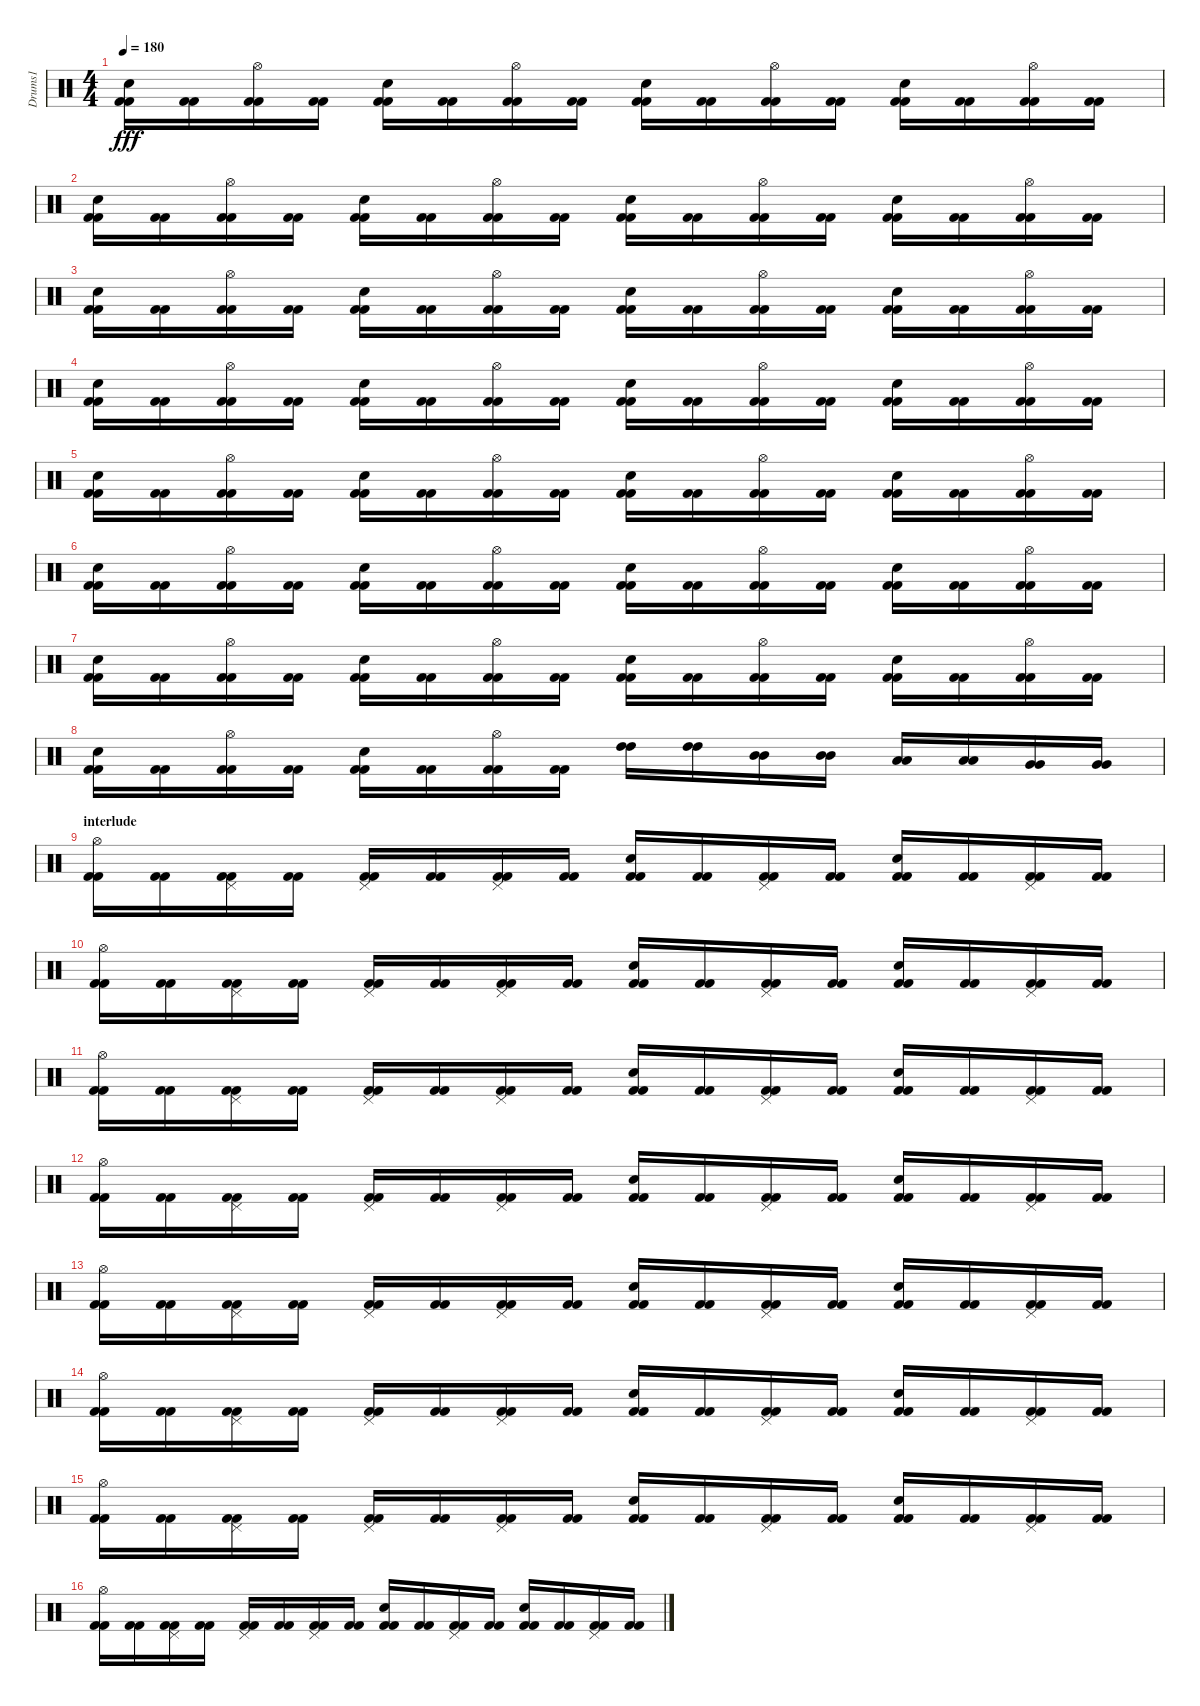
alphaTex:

\track ("Drums1" "Drums1") {instrument percussion}
\staff {score}
\articulation defaults
\ts (4 4)
\tempo 180
\clef neutral
\ks c
("Electric Snare (hit)" "Kick (hit) 2" "Kick (hit) 2").16{dy fff} ("Kick (hit) 2" "Kick (hit) 2").16 ("Hi-Hat (open)" "Kick (hit) 2" "Kick (hit) 2").16 ("Kick (hit) 2" "Kick (hit) 2").16 ("Electric Snare (hit)" "Kick (hit) 2" "Kick (hit) 2").16 ("Kick (hit) 2" "Kick (hit) 2").16 ("Hi-Hat (open)" "Kick (hit) 2" "Kick (hit) 2").16 ("Kick (hit) 2" "Kick (hit) 2").16 ("Electric Snare (hit)" "Kick (hit) 2" "Kick (hit) 2").16 ("Kick (hit) 2" "Kick (hit) 2").16 ("Hi-Hat (open)" "Kick (hit) 2" "Kick (hit) 2").16 ("Kick (hit) 2" "Kick (hit) 2").16 ("Electric Snare (hit)" "Kick (hit) 2" "Kick (hit) 2").16 ("Kick (hit) 2" "Kick (hit) 2").16 ("Hi-Hat (open)" "Kick (hit) 2" "Kick (hit) 2").16 ("Kick (hit) 2" "Kick (hit) 2").16 |
("Electric Snare (hit)" "Kick (hit) 2" "Kick (hit) 2").16 ("Kick (hit) 2" "Kick (hit) 2").16 ("Hi-Hat (open)" "Kick (hit) 2" "Kick (hit) 2").16 ("Kick (hit) 2" "Kick (hit) 2").16 ("Electric Snare (hit)" "Kick (hit) 2" "Kick (hit) 2").16 ("Kick (hit) 2" "Kick (hit) 2").16 ("Hi-Hat (open)" "Kick (hit) 2" "Kick (hit) 2").16 ("Kick (hit) 2" "Kick (hit) 2").16 ("Electric Snare (hit)" "Kick (hit) 2" "Kick (hit) 2").16 ("Kick (hit) 2" "Kick (hit) 2").16 ("Hi-Hat (open)" "Kick (hit) 2" "Kick (hit) 2").16 ("Kick (hit) 2" "Kick (hit) 2").16 ("Electric Snare (hit)" "Kick (hit) 2" "Kick (hit) 2").16 ("Kick (hit) 2" "Kick (hit) 2").16 ("Hi-Hat (open)" "Kick (hit) 2" "Kick (hit) 2").16 ("Kick (hit) 2" "Kick (hit) 2").16 |
("Electric Snare (hit)" "Kick (hit) 2" "Kick (hit) 2").16 ("Kick (hit) 2" "Kick (hit) 2").16 ("Hi-Hat (open)" "Kick (hit) 2" "Kick (hit) 2").16 ("Kick (hit) 2" "Kick (hit) 2").16 ("Electric Snare (hit)" "Kick (hit) 2" "Kick (hit) 2").16 ("Kick (hit) 2" "Kick (hit) 2").16 ("Hi-Hat (open)" "Kick (hit) 2" "Kick (hit) 2").16 ("Kick (hit) 2" "Kick (hit) 2").16 ("Electric Snare (hit)" "Kick (hit) 2" "Kick (hit) 2").16 ("Kick (hit) 2" "Kick (hit) 2").16 ("Hi-Hat (open)" "Kick (hit) 2" "Kick (hit) 2").16 ("Kick (hit) 2" "Kick (hit) 2").16 ("Electric Snare (hit)" "Kick (hit) 2" "Kick (hit) 2").16 ("Kick (hit) 2" "Kick (hit) 2").16 ("Hi-Hat (open)" "Kick (hit) 2" "Kick (hit) 2").16 ("Kick (hit) 2" "Kick (hit) 2").16 |
("Electric Snare (hit)" "Kick (hit) 2" "Kick (hit) 2").16 ("Kick (hit) 2" "Kick (hit) 2").16 ("Hi-Hat (open)" "Kick (hit) 2" "Kick (hit) 2").16 ("Kick (hit) 2" "Kick (hit) 2").16 ("Electric Snare (hit)" "Kick (hit) 2" "Kick (hit) 2").16 ("Kick (hit) 2" "Kick (hit) 2").16 ("Hi-Hat (open)" "Kick (hit) 2" "Kick (hit) 2").16 ("Kick (hit) 2" "Kick (hit) 2").16 ("Electric Snare (hit)" "Kick (hit) 2" "Kick (hit) 2").16 ("Kick (hit) 2" "Kick (hit) 2").16 ("Hi-Hat (open)" "Kick (hit) 2" "Kick (hit) 2").16 ("Kick (hit) 2" "Kick (hit) 2").16 ("Electric Snare (hit)" "Kick (hit) 2" "Kick (hit) 2").16 ("Kick (hit) 2" "Kick (hit) 2").16 ("Hi-Hat (open)" "Kick (hit) 2" "Kick (hit) 2").16 ("Kick (hit) 2" "Kick (hit) 2").16 |
("Electric Snare (hit)" "Kick (hit) 2" "Kick (hit) 2").16 ("Kick (hit) 2" "Kick (hit) 2").16 ("Hi-Hat (open)" "Kick (hit) 2" "Kick (hit) 2").16 ("Kick (hit) 2" "Kick (hit) 2").16 ("Electric Snare (hit)" "Kick (hit) 2" "Kick (hit) 2").16 ("Kick (hit) 2" "Kick (hit) 2").16 ("Hi-Hat (open)" "Kick (hit) 2" "Kick (hit) 2").16 ("Kick (hit) 2" "Kick (hit) 2").16 ("Electric Snare (hit)" "Kick (hit) 2" "Kick (hit) 2").16 ("Kick (hit) 2" "Kick (hit) 2").16 ("Hi-Hat (open)" "Kick (hit) 2" "Kick (hit) 2").16 ("Kick (hit) 2" "Kick (hit) 2").16 ("Electric Snare (hit)" "Kick (hit) 2" "Kick (hit) 2").16 ("Kick (hit) 2" "Kick (hit) 2").16 ("Hi-Hat (open)" "Kick (hit) 2" "Kick (hit) 2").16 ("Kick (hit) 2" "Kick (hit) 2").16 |
("Electric Snare (hit)" "Kick (hit) 2" "Kick (hit) 2").16 ("Kick (hit) 2" "Kick (hit) 2").16 ("Hi-Hat (open)" "Kick (hit) 2" "Kick (hit) 2").16 ("Kick (hit) 2" "Kick (hit) 2").16 ("Electric Snare (hit)" "Kick (hit) 2" "Kick (hit) 2").16 ("Kick (hit) 2" "Kick (hit) 2").16 ("Hi-Hat (open)" "Kick (hit) 2" "Kick (hit) 2").16 ("Kick (hit) 2" "Kick (hit) 2").16 ("Electric Snare (hit)" "Kick (hit) 2" "Kick (hit) 2").16 ("Kick (hit) 2" "Kick (hit) 2").16 ("Hi-Hat (open)" "Kick (hit) 2" "Kick (hit) 2").16 ("Kick (hit) 2" "Kick (hit) 2").16 ("Electric Snare (hit)" "Kick (hit) 2" "Kick (hit) 2").16 ("Kick (hit) 2" "Kick (hit) 2").16 ("Hi-Hat (open)" "Kick (hit) 2" "Kick (hit) 2").16 ("Kick (hit) 2" "Kick (hit) 2").16 |
("Electric Snare (hit)" "Kick (hit) 2" "Kick (hit) 2").16 ("Kick (hit) 2" "Kick (hit) 2").16 ("Hi-Hat (open)" "Kick (hit) 2" "Kick (hit) 2").16 ("Kick (hit) 2" "Kick (hit) 2").16 ("Electric Snare (hit)" "Kick (hit) 2" "Kick (hit) 2").16 ("Kick (hit) 2" "Kick (hit) 2").16 ("Hi-Hat (open)" "Kick (hit) 2" "Kick (hit) 2").16 ("Kick (hit) 2" "Kick (hit) 2").16 ("Electric Snare (hit)" "Kick (hit) 2" "Kick (hit) 2").16 ("Kick (hit) 2" "Kick (hit) 2").16 ("Hi-Hat (open)" "Kick (hit) 2" "Kick (hit) 2").16 ("Kick (hit) 2" "Kick (hit) 2").16 ("Electric Snare (hit)" "Kick (hit) 2" "Kick (hit) 2").16 ("Kick (hit) 2" "Kick (hit) 2").16 ("Hi-Hat (open)" "Kick (hit) 2" "Kick (hit) 2").16 ("Kick (hit) 2" "Kick (hit) 2").16 |
("Electric Snare (hit)" "Kick (hit) 2" "Kick (hit) 2").16 ("Kick (hit) 2" "Kick (hit) 2").16 ("Hi-Hat (open)" "Kick (hit) 2" "Kick (hit) 2").16 ("Kick (hit) 2" "Kick (hit) 2").16 ("Electric Snare (hit)" "Kick (hit) 2" "Kick (hit) 2").16 ("Kick (hit) 2" "Kick (hit) 2").16 ("Hi-Hat (open)" "Kick (hit) 2" "Kick (hit) 2").16 ("Kick (hit) 2" "Kick (hit) 2").16 ("High Tom (hit)" "High Tom (hit)").16 ("High Tom (hit)" "High Tom (hit)").16 ("Mid Tom (hit)" "Mid Tom (hit)").16 ("Mid Tom (hit)" "Mid Tom (hit)").16 ("Low Tom (hit)" "Low Tom (hit)").16 ("Low Tom (hit)" "Low Tom (hit)").16 ("Very Low Tom (hit)" "Very Low Tom (hit)").16 ("Very Low Tom (hit)" "Very Low Tom (hit)").16 |
\section ("" "interlude")
("Hi-Hat (open)" "Kick (hit) 2" "Kick (hit) 2").16 ("Kick (hit) 2" "Kick (hit) 2").16 ("Pedal Hi-Hat (hit)" "Kick (hit) 2" "Kick (hit) 2").16 ("Kick (hit) 2" "Kick (hit) 2").16 ("Pedal Hi-Hat (hit)" "Kick (hit) 2" "Kick (hit) 2").16 ("Kick (hit) 2" "Kick (hit) 2").16 ("Pedal Hi-Hat (hit)" "Kick (hit) 2" "Kick (hit) 2").16 ("Kick (hit) 2" "Kick (hit) 2").16 ("Electric Snare (hit)" "Kick (hit) 2" "Kick (hit) 2").16 ("Kick (hit) 2" "Kick (hit) 2").16 ("Pedal Hi-Hat (hit)" "Kick (hit) 2" "Kick (hit) 2").16 ("Kick (hit) 2" "Kick (hit) 2").16 ("Electric Snare (hit)" "Kick (hit) 2" "Kick (hit) 2").16 ("Kick (hit) 2" "Kick (hit) 2").16 ("Pedal Hi-Hat (hit)" "Kick (hit) 2" "Kick (hit) 2").16 ("Kick (hit) 2" "Kick (hit) 2").16 |
("Hi-Hat (open)" "Kick (hit) 2" "Kick (hit) 2").16 ("Kick (hit) 2" "Kick (hit) 2").16 ("Pedal Hi-Hat (hit)" "Kick (hit) 2" "Kick (hit) 2").16 ("Kick (hit) 2" "Kick (hit) 2").16 ("Pedal Hi-Hat (hit)" "Kick (hit) 2" "Kick (hit) 2").16 ("Kick (hit) 2" "Kick (hit) 2").16 ("Pedal Hi-Hat (hit)" "Kick (hit) 2" "Kick (hit) 2").16 ("Kick (hit) 2" "Kick (hit) 2").16 ("Electric Snare (hit)" "Kick (hit) 2" "Kick (hit) 2").16 ("Kick (hit) 2" "Kick (hit) 2").16 ("Pedal Hi-Hat (hit)" "Kick (hit) 2" "Kick (hit) 2").16 ("Kick (hit) 2" "Kick (hit) 2").16 ("Electric Snare (hit)" "Kick (hit) 2" "Kick (hit) 2").16 ("Kick (hit) 2" "Kick (hit) 2").16 ("Pedal Hi-Hat (hit)" "Kick (hit) 2" "Kick (hit) 2").16 ("Kick (hit) 2" "Kick (hit) 2").16 |
("Hi-Hat (open)" "Kick (hit) 2" "Kick (hit) 2").16 ("Kick (hit) 2" "Kick (hit) 2").16 ("Pedal Hi-Hat (hit)" "Kick (hit) 2" "Kick (hit) 2").16 ("Kick (hit) 2" "Kick (hit) 2").16 ("Pedal Hi-Hat (hit)" "Kick (hit) 2" "Kick (hit) 2").16 ("Kick (hit) 2" "Kick (hit) 2").16 ("Pedal Hi-Hat (hit)" "Kick (hit) 2" "Kick (hit) 2").16 ("Kick (hit) 2" "Kick (hit) 2").16 ("Electric Snare (hit)" "Kick (hit) 2" "Kick (hit) 2").16 ("Kick (hit) 2" "Kick (hit) 2").16 ("Pedal Hi-Hat (hit)" "Kick (hit) 2" "Kick (hit) 2").16 ("Kick (hit) 2" "Kick (hit) 2").16 ("Electric Snare (hit)" "Kick (hit) 2" "Kick (hit) 2").16 ("Kick (hit) 2" "Kick (hit) 2").16 ("Pedal Hi-Hat (hit)" "Kick (hit) 2" "Kick (hit) 2").16 ("Kick (hit) 2" "Kick (hit) 2").16 |
("Hi-Hat (open)" "Kick (hit) 2" "Kick (hit) 2").16 ("Kick (hit) 2" "Kick (hit) 2").16 ("Pedal Hi-Hat (hit)" "Kick (hit) 2" "Kick (hit) 2").16 ("Kick (hit) 2" "Kick (hit) 2").16 ("Pedal Hi-Hat (hit)" "Kick (hit) 2" "Kick (hit) 2").16 ("Kick (hit) 2" "Kick (hit) 2").16 ("Pedal Hi-Hat (hit)" "Kick (hit) 2" "Kick (hit) 2").16 ("Kick (hit) 2" "Kick (hit) 2").16 ("Electric Snare (hit)" "Kick (hit) 2" "Kick (hit) 2").16 ("Kick (hit) 2" "Kick (hit) 2").16 ("Pedal Hi-Hat (hit)" "Kick (hit) 2" "Kick (hit) 2").16 ("Kick (hit) 2" "Kick (hit) 2").16 ("Electric Snare (hit)" "Kick (hit) 2" "Kick (hit) 2").16 ("Kick (hit) 2" "Kick (hit) 2").16 ("Pedal Hi-Hat (hit)" "Kick (hit) 2" "Kick (hit) 2").16 ("Kick (hit) 2" "Kick (hit) 2").16 |
("Hi-Hat (open)" "Kick (hit) 2" "Kick (hit) 2").16 ("Kick (hit) 2" "Kick (hit) 2").16 ("Pedal Hi-Hat (hit)" "Kick (hit) 2" "Kick (hit) 2").16 ("Kick (hit) 2" "Kick (hit) 2").16 ("Pedal Hi-Hat (hit)" "Kick (hit) 2" "Kick (hit) 2").16 ("Kick (hit) 2" "Kick (hit) 2").16 ("Pedal Hi-Hat (hit)" "Kick (hit) 2" "Kick (hit) 2").16 ("Kick (hit) 2" "Kick (hit) 2").16 ("Electric Snare (hit)" "Kick (hit) 2" "Kick (hit) 2").16 ("Kick (hit) 2" "Kick (hit) 2").16 ("Pedal Hi-Hat (hit)" "Kick (hit) 2" "Kick (hit) 2").16 ("Kick (hit) 2" "Kick (hit) 2").16 ("Electric Snare (hit)" "Kick (hit) 2" "Kick (hit) 2").16 ("Kick (hit) 2" "Kick (hit) 2").16 ("Pedal Hi-Hat (hit)" "Kick (hit) 2" "Kick (hit) 2").16 ("Kick (hit) 2" "Kick (hit) 2").16 |
("Hi-Hat (open)" "Kick (hit) 2" "Kick (hit) 2").16 ("Kick (hit) 2" "Kick (hit) 2").16 ("Pedal Hi-Hat (hit)" "Kick (hit) 2" "Kick (hit) 2").16 ("Kick (hit) 2" "Kick (hit) 2").16 ("Pedal Hi-Hat (hit)" "Kick (hit) 2" "Kick (hit) 2").16 ("Kick (hit) 2" "Kick (hit) 2").16 ("Pedal Hi-Hat (hit)" "Kick (hit) 2" "Kick (hit) 2").16 ("Kick (hit) 2" "Kick (hit) 2").16 ("Electric Snare (hit)" "Kick (hit) 2" "Kick (hit) 2").16 ("Kick (hit) 2" "Kick (hit) 2").16 ("Pedal Hi-Hat (hit)" "Kick (hit) 2" "Kick (hit) 2").16 ("Kick (hit) 2" "Kick (hit) 2").16 ("Electric Snare (hit)" "Kick (hit) 2" "Kick (hit) 2").16 ("Kick (hit) 2" "Kick (hit) 2").16 ("Pedal Hi-Hat (hit)" "Kick (hit) 2" "Kick (hit) 2").16 ("Kick (hit) 2" "Kick (hit) 2").16 |
("Hi-Hat (open)" "Kick (hit) 2" "Kick (hit) 2").16 ("Kick (hit) 2" "Kick (hit) 2").16 ("Pedal Hi-Hat (hit)" "Kick (hit) 2" "Kick (hit) 2").16 ("Kick (hit) 2" "Kick (hit) 2").16 ("Pedal Hi-Hat (hit)" "Kick (hit) 2" "Kick (hit) 2").16 ("Kick (hit) 2" "Kick (hit) 2").16 ("Pedal Hi-Hat (hit)" "Kick (hit) 2" "Kick (hit) 2").16 ("Kick (hit) 2" "Kick (hit) 2").16 ("Electric Snare (hit)" "Kick (hit) 2" "Kick (hit) 2").16 ("Kick (hit) 2" "Kick (hit) 2").16 ("Pedal Hi-Hat (hit)" "Kick (hit) 2" "Kick (hit) 2").16 ("Kick (hit) 2" "Kick (hit) 2").16 ("Electric Snare (hit)" "Kick (hit) 2" "Kick (hit) 2").16 ("Kick (hit) 2" "Kick (hit) 2").16 ("Pedal Hi-Hat (hit)" "Kick (hit) 2" "Kick (hit) 2").16 ("Kick (hit) 2" "Kick (hit) 2").16 |
("Hi-Hat (open)" "Kick (hit) 2" "Kick (hit) 2").16 ("Kick (hit) 2" "Kick (hit) 2").16 ("Pedal Hi-Hat (hit)" "Kick (hit) 2" "Kick (hit) 2").16 ("Kick (hit) 2" "Kick (hit) 2").16 ("Pedal Hi-Hat (hit)" "Kick (hit) 2" "Kick (hit) 2").16 ("Kick (hit) 2" "Kick (hit) 2").16 ("Pedal Hi-Hat (hit)" "Kick (hit) 2" "Kick (hit) 2").16 ("Kick (hit) 2" "Kick (hit) 2").16 ("Electric Snare (hit)" "Kick (hit) 2" "Kick (hit) 2").16 ("Kick (hit) 2" "Kick (hit) 2").16 ("Pedal Hi-Hat (hit)" "Kick (hit) 2" "Kick (hit) 2").16 ("Kick (hit) 2" "Kick (hit) 2").16 ("Electric Snare (hit)" "Kick (hit) 2" "Kick (hit) 2").16 ("Kick (hit) 2" "Kick (hit) 2").16 ("Pedal Hi-Hat (hit)" "Kick (hit) 2" "Kick (hit) 2").16 ("Kick (hit) 2" "Kick (hit) 2").16
